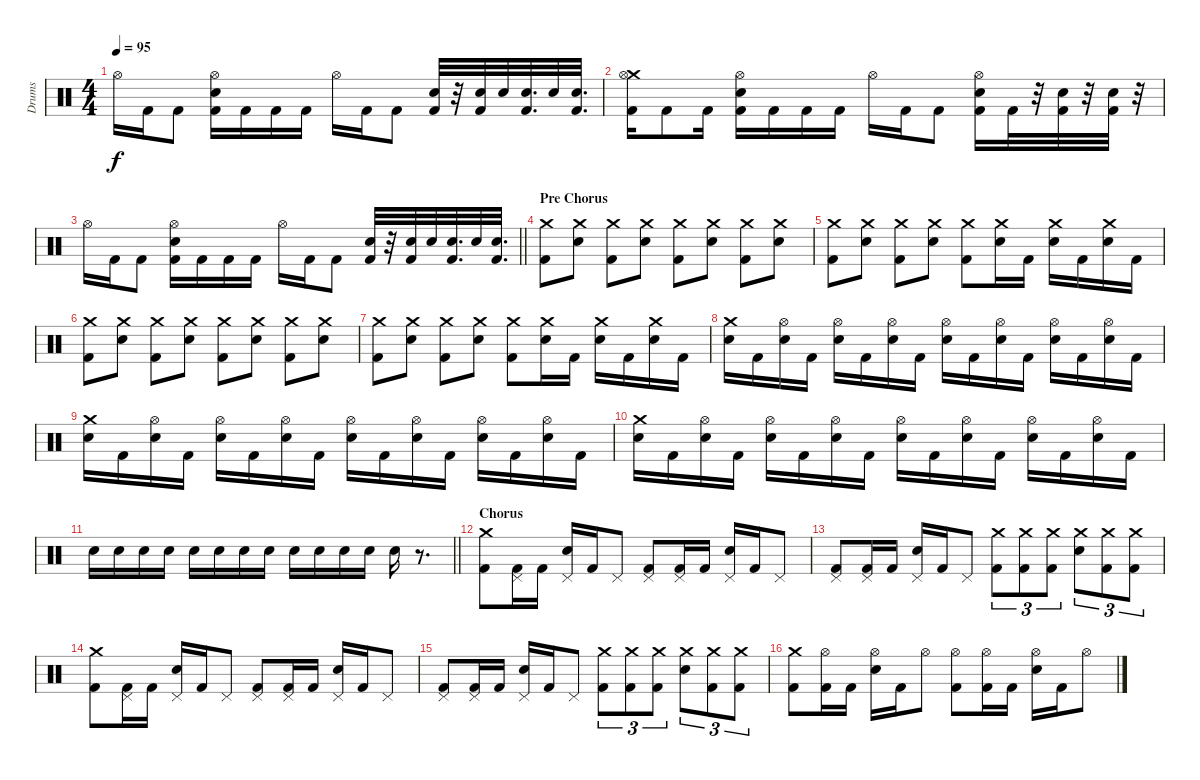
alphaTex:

\track ("Drums" "Drums") {instrument percussion}
\staff {score}
\articulation defaults
\ts (4 4)
\tempo 95
\clef neutral
\ks c "Hi-Hat (open)".16{dy f} "Kick (hit) 2".16 "Kick (hit) 2".8
("Hi-Hat (open)" "Kick (hit) 2" "Snare (hit) 2").16 "Kick (hit) 2".16 "Kick (hit) 2".16 "Kick (hit) 2".16 "Hi-Hat (open)".16 "Kick (hit) 2".16 "Kick (hit) 2".8 ("Kick (hit) 2" "Snare (hit) 2").32 r.32 ("Kick (hit) 2" "Snare (hit) 2").32 "Snare (hit) 2".32 ("Kick (hit) 2" "Snare (hit) 2").32{d} "Snare (hit) 2".32 ("Kick (hit) 2" "Snare (hit) 2").32{d} |
("Crash medium (hit)" "Kick (hit) 2" "Hi-Hat (open)").16 "Kick (hit) 2".8 "Kick (hit) 2".16 ("Hi-Hat (open)" "Kick (hit) 2" "Snare (hit) 2").16 "Kick (hit) 2".16 "Kick (hit) 2".16 "Kick (hit) 2".16 "Hi-Hat (open)".16 "Kick (hit) 2".16 "Kick (hit) 2".8 ("Hi-Hat (open)" "Kick (hit) 2" "Snare (hit) 2").16 "Kick (hit) 2".32 r.32 ("Kick (hit) 2" "Snare (hit) 2").32 r.32 ("Kick (hit) 2" "Snare (hit) 2").32 r.32 |
\barLineRight lightlight "Hi-Hat (open)".16 "Kick (hit) 2".16 "Kick (hit) 2".8
("Hi-Hat (open)" "Kick (hit) 2" "Snare (hit) 2").16 "Kick (hit) 2".16 "Kick (hit) 2".16 "Kick (hit) 2".16 "Hi-Hat (open)".16 "Kick (hit) 2".16 "Kick (hit) 2".8 ("Kick (hit) 2" "Snare (hit) 2").32 r.32 ("Kick (hit) 2" "Snare (hit) 2").32 "Snare (hit) 2".32 ("Kick (hit) 2" "Snare (hit) 2").32{d} "Snare (hit) 2".32 ("Kick (hit) 2" "Snare (hit) 2").32{d} |
\section ("" "Pre Chorus")
("Crash medium (hit)" "Kick (hit) 2").8 ("Crash medium (hit)" "Electric Snare (hit)").8 ("Crash medium (hit)" "Kick (hit) 2").8 ("Crash medium (hit)" "Electric Snare (hit)").8 ("Crash medium (hit)" "Kick (hit) 2").8 ("Crash medium (hit)" "Electric Snare (hit)").8 ("Crash medium (hit)" "Kick (hit) 2").8 ("Crash medium (hit)" "Electric Snare (hit)").8 |
("Crash medium (hit)" "Kick (hit) 2").8 ("Crash medium (hit)" "Electric Snare (hit)").8 ("Crash medium (hit)" "Kick (hit) 2").8 ("Crash medium (hit)" "Electric Snare (hit)").8 ("Crash medium (hit)" "Kick (hit) 2").8 ("Crash medium (hit)" "Electric Snare (hit)").16 "Kick (hit) 2".16 ("Crash medium (hit)" "Electric Snare (hit)").16 "Kick (hit) 2".16 ("Crash medium (hit)" "Electric Snare (hit)").16 "Kick (hit) 2".16 |
("Crash medium (hit)" "Kick (hit) 2").8 ("Crash medium (hit)" "Electric Snare (hit)").8 ("Crash medium (hit)" "Kick (hit) 2").8 ("Crash medium (hit)" "Electric Snare (hit)").8 ("Crash medium (hit)" "Kick (hit) 2").8 ("Crash medium (hit)" "Electric Snare (hit)").8 ("Crash medium (hit)" "Kick (hit) 2").8 ("Crash medium (hit)" "Electric Snare (hit)").8 |
("Crash medium (hit)" "Kick (hit) 2").8 ("Crash medium (hit)" "Electric Snare (hit)").8 ("Crash medium (hit)" "Kick (hit) 2").8 ("Crash medium (hit)" "Electric Snare (hit)").8 ("Crash medium (hit)" "Kick (hit) 2").8 ("Crash medium (hit)" "Electric Snare (hit)").16 "Kick (hit) 2".16 ("Crash medium (hit)" "Electric Snare (hit)").16 "Kick (hit) 2".16 ("Crash medium (hit)" "Electric Snare (hit)").16 "Kick (hit) 2".16 |
("Crash medium (hit)" "Electric Snare (hit)").16 "Kick (hit) 2".16 ("Hi-Hat (open)" "Electric Snare (hit)").16 "Kick (hit) 2".16 ("Hi-Hat (open)" "Electric Snare (hit)").16 "Kick (hit) 2".16 ("Hi-Hat (open)" "Electric Snare (hit)").16 "Kick (hit) 2".16 ("Hi-Hat (open)" "Electric Snare (hit)").16 "Kick (hit) 2".16 ("Hi-Hat (open)" "Electric Snare (hit)").16 "Kick (hit) 2".16 ("Hi-Hat (open)" "Electric Snare (hit)").16 "Kick (hit) 2".16 ("Hi-Hat (open)" "Electric Snare (hit)").16 "Kick (hit) 2".16 |
("Crash medium (hit)" "Electric Snare (hit)").16 "Kick (hit) 2".16 ("Hi-Hat (open)" "Electric Snare (hit)").16 "Kick (hit) 2".16 ("Hi-Hat (open)" "Electric Snare (hit)").16 "Kick (hit) 2".16 ("Hi-Hat (open)" "Electric Snare (hit)").16 "Kick (hit) 2".16 ("Hi-Hat (open)" "Electric Snare (hit)").16 "Kick (hit) 2".16 ("Hi-Hat (open)" "Electric Snare (hit)").16 "Kick (hit) 2".16 ("Hi-Hat (open)" "Electric Snare (hit)").16 "Kick (hit) 2".16 ("Hi-Hat (open)" "Electric Snare (hit)").16 "Kick (hit) 2".16 |
("Crash medium (hit)" "Electric Snare (hit)").16 "Kick (hit) 2".16 ("Hi-Hat (open)" "Electric Snare (hit)").16 "Kick (hit) 2".16 ("Hi-Hat (open)" "Electric Snare (hit)").16 "Kick (hit) 2".16 ("Hi-Hat (open)" "Electric Snare (hit)").16 "Kick (hit) 2".16 ("Hi-Hat (open)" "Electric Snare (hit)").16 "Kick (hit) 2".16 ("Hi-Hat (open)" "Electric Snare (hit)").16 "Kick (hit) 2".16 ("Hi-Hat (open)" "Electric Snare (hit)").16 "Kick (hit) 2".16 ("Hi-Hat (open)" "Electric Snare (hit)").16 "Kick (hit) 2".16 |
\barLineRight lightlight "Electric Snare (hit)".16 "Electric Snare (hit)".16 "Electric Snare (hit)".16 "Electric Snare (hit)".16 "Electric Snare (hit)".16 "Electric Snare (hit)".16 "Electric Snare (hit)".16 "Electric Snare (hit)".16 "Electric Snare (hit)".16 "Electric Snare (hit)".16 "Electric Snare (hit)".16 "Electric Snare (hit)".16 "Electric Snare (hit)".16
r.8{d} |
\section ("" "Chorus")
("Crash medium (hit)" "Kick (hit) 2").8 ("Pedal Hi-Hat (hit)" "Kick (hit) 2").16 "Kick (hit) 2".16 ("Pedal Hi-Hat (hit)" "Electric Snare (hit)").16 "Kick (hit) 2".16 "Pedal Hi-Hat (hit)".8 ("Pedal Hi-Hat (hit)" "Kick (hit) 2").8 ("Pedal Hi-Hat (hit)" "Kick (hit) 2").16 "Kick (hit) 2".16 ("Pedal Hi-Hat (hit)" "Electric Snare (hit)").16 "Kick (hit) 2".16 "Pedal Hi-Hat (hit)".8 |
("Pedal Hi-Hat (hit)" "Kick (hit) 2").8 ("Pedal Hi-Hat (hit)" "Kick (hit) 2").16 "Kick (hit) 2".16 ("Pedal Hi-Hat (hit)" "Electric Snare (hit)").16 "Kick (hit) 2".16 "Pedal Hi-Hat (hit)".8 ("Crash medium (hit)" "Kick (hit) 2").8{tu (3 2)} ("Crash medium (hit)" "Kick (hit) 2").8{tu (3 2)} ("Crash medium (hit)" "Kick (hit) 2").8{tu (3 2)} ("Crash medium (hit)" "Electric Snare (hit)").8{tu (3 2)} ("Crash medium (hit)" "Kick (hit) 2").8{tu (3 2)} ("Crash medium (hit)" "Kick (hit) 2").8{tu (3 2)} |
("Crash medium (hit)" "Kick (hit) 2").8 ("Pedal Hi-Hat (hit)" "Kick (hit) 2").16 "Kick (hit) 2".16 ("Pedal Hi-Hat (hit)" "Electric Snare (hit)").16 "Kick (hit) 2".16 "Pedal Hi-Hat (hit)".8 ("Pedal Hi-Hat (hit)" "Kick (hit) 2").8 ("Pedal Hi-Hat (hit)" "Kick (hit) 2").16 "Kick (hit) 2".16 ("Pedal Hi-Hat (hit)" "Electric Snare (hit)").16 "Kick (hit) 2".16 "Pedal Hi-Hat (hit)".8 |
("Pedal Hi-Hat (hit)" "Kick (hit) 2").8 ("Pedal Hi-Hat (hit)" "Kick (hit) 2").16 "Kick (hit) 2".16 ("Pedal Hi-Hat (hit)" "Electric Snare (hit)").16 "Kick (hit) 2".16 "Pedal Hi-Hat (hit)".8 ("Crash medium (hit)" "Kick (hit) 2").8{tu (3 2)} ("Crash medium (hit)" "Kick (hit) 2").8{tu (3 2)} ("Crash medium (hit)" "Kick (hit) 2").8{tu (3 2)} ("Crash medium (hit)" "Electric Snare (hit)").8{tu (3 2)} ("Crash medium (hit)" "Kick (hit) 2").8{tu (3 2)} ("Crash medium (hit)" "Kick (hit) 2").8{tu (3 2)} |
("Crash medium (hit)" "Kick (hit) 2").8 ("Hi-Hat (open)" "Kick (hit) 2").16 "Kick (hit) 2".16 ("Hi-Hat (open)" "Electric Snare (hit)").16 "Kick (hit) 2".16 "Hi-Hat (open)".8 ("Hi-Hat (open)" "Kick (hit) 2").8 ("Hi-Hat (open)" "Kick (hit) 2").16 "Kick (hit) 2".16 ("Hi-Hat (open)" "Electric Snare (hit)").16 "Kick (hit) 2".16 "Hi-Hat (open)".8
